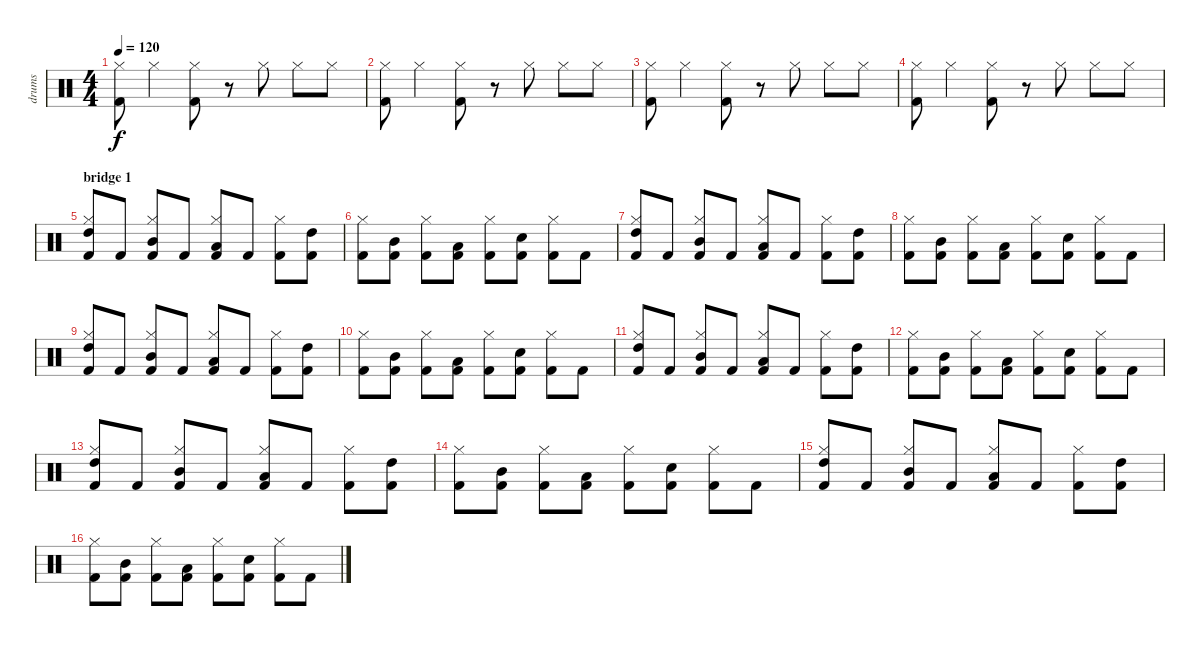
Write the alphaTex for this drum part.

\track ("drums" "drums") {instrument percussion}
\staff {score}
\articulation defaults
\ts (4 4)
\tempo 120
\clef neutral
\ks c
("Kick (hit) 2" "Hi-Hat (closed)").8{dy f} "Hi-Hat (closed)".4 ("Kick (hit) 2" "Hi-Hat (closed)").8 r.8 "Hi-Hat (closed)".8 "Hi-Hat (closed)".8 "Hi-Hat (closed)".8 |
("Kick (hit) 2" "Hi-Hat (closed)").8 "Hi-Hat (closed)".4 ("Kick (hit) 2" "Hi-Hat (closed)").8 r.8 "Hi-Hat (closed)".8 "Hi-Hat (closed)".8 "Hi-Hat (closed)".8 |
("Kick (hit) 2" "Hi-Hat (closed)").8 "Hi-Hat (closed)".4 ("Kick (hit) 2" "Hi-Hat (closed)").8 r.8 "Hi-Hat (closed)".8 "Hi-Hat (closed)".8 "Hi-Hat (closed)".8 |
("Kick (hit) 2" "Hi-Hat (closed)").8 "Hi-Hat (closed)".4 ("Kick (hit) 2" "Hi-Hat (closed)").8 r.8 "Hi-Hat (closed)".8 "Hi-Hat (closed)".8 "Hi-Hat (closed)".8 |
\section ("" "bridge 1")
("Kick (hit) 2" "High Tom (hit)" "Hi-Hat (closed)").8 "Kick (hit) 2".8 ("Kick (hit) 2" "Mid Tom (hit)" "Hi-Hat (closed)").8 "Kick (hit) 2".8 ("Kick (hit) 2" "Low Tom (hit)" "Hi-Hat (closed)").8 "Kick (hit) 2".8 ("Kick (hit) 2" "Hi-Hat (closed)").8 ("Kick (hit) 2" "High Tom (hit)").8 |
("Kick (hit) 2" "Hi-Hat (closed)").8 ("Kick (hit) 2" "Mid Tom (hit)").8 ("Kick (hit) 2" "Hi-Hat (closed)").8 ("Kick (hit) 2" "Low Tom (hit)").8 ("Kick (hit) 2" "Hi-Hat (closed)").8 ("Snare (hit) 2" "Kick (hit) 2").8 ("Kick (hit) 2" "Hi-Hat (closed)").8 "Kick (hit) 2".8 |
("Kick (hit) 2" "High Tom (hit)" "Hi-Hat (closed)").8 "Kick (hit) 2".8 ("Kick (hit) 2" "Mid Tom (hit)" "Hi-Hat (closed)").8 "Kick (hit) 2".8 ("Kick (hit) 2" "Low Tom (hit)" "Hi-Hat (closed)").8 "Kick (hit) 2".8 ("Kick (hit) 2" "Hi-Hat (closed)").8 ("Kick (hit) 2" "High Tom (hit)").8 |
("Kick (hit) 2" "Hi-Hat (closed)").8 ("Kick (hit) 2" "Mid Tom (hit)").8 ("Kick (hit) 2" "Hi-Hat (closed)").8 ("Kick (hit) 2" "Low Tom (hit)").8 ("Kick (hit) 2" "Hi-Hat (closed)").8 ("Snare (hit) 2" "Kick (hit) 2").8 ("Kick (hit) 2" "Hi-Hat (closed)").8 "Kick (hit) 2".8 |
("Kick (hit) 2" "High Tom (hit)" "Hi-Hat (closed)").8 "Kick (hit) 2".8 ("Kick (hit) 2" "Mid Tom (hit)" "Hi-Hat (closed)").8 "Kick (hit) 2".8 ("Kick (hit) 2" "Low Tom (hit)" "Hi-Hat (closed)").8 "Kick (hit) 2".8 ("Kick (hit) 2" "Hi-Hat (closed)").8 ("Kick (hit) 2" "High Tom (hit)").8 |
("Kick (hit) 2" "Hi-Hat (closed)").8 ("Kick (hit) 2" "Mid Tom (hit)").8 ("Kick (hit) 2" "Hi-Hat (closed)").8 ("Kick (hit) 2" "Low Tom (hit)").8 ("Kick (hit) 2" "Hi-Hat (closed)").8 ("Snare (hit) 2" "Kick (hit) 2").8 ("Kick (hit) 2" "Hi-Hat (closed)").8 "Kick (hit) 2".8 |
("Kick (hit) 2" "High Tom (hit)" "Hi-Hat (closed)").8 "Kick (hit) 2".8 ("Kick (hit) 2" "Mid Tom (hit)" "Hi-Hat (closed)").8 "Kick (hit) 2".8 ("Kick (hit) 2" "Low Tom (hit)" "Hi-Hat (closed)").8 "Kick (hit) 2".8 ("Kick (hit) 2" "Hi-Hat (closed)").8 ("Kick (hit) 2" "High Tom (hit)").8 |
("Kick (hit) 2" "Hi-Hat (closed)").8 ("Kick (hit) 2" "Mid Tom (hit)").8 ("Kick (hit) 2" "Hi-Hat (closed)").8 ("Kick (hit) 2" "Low Tom (hit)").8 ("Kick (hit) 2" "Hi-Hat (closed)").8 ("Snare (hit) 2" "Kick (hit) 2").8 ("Kick (hit) 2" "Hi-Hat (closed)").8 "Kick (hit) 2".8 |
("Kick (hit) 2" "High Tom (hit)" "Hi-Hat (closed)").8 "Kick (hit) 2".8 ("Kick (hit) 2" "Mid Tom (hit)" "Hi-Hat (closed)").8 "Kick (hit) 2".8 ("Kick (hit) 2" "Low Tom (hit)" "Hi-Hat (closed)").8 "Kick (hit) 2".8 ("Kick (hit) 2" "Hi-Hat (closed)").8 ("Kick (hit) 2" "High Tom (hit)").8 |
("Kick (hit) 2" "Hi-Hat (closed)").8 ("Kick (hit) 2" "Mid Tom (hit)").8 ("Kick (hit) 2" "Hi-Hat (closed)").8 ("Kick (hit) 2" "Low Tom (hit)").8 ("Kick (hit) 2" "Hi-Hat (closed)").8 ("Snare (hit) 2" "Kick (hit) 2").8 ("Kick (hit) 2" "Hi-Hat (closed)").8 "Kick (hit) 2".8 |
("Kick (hit) 2" "High Tom (hit)" "Hi-Hat (closed)").8 "Kick (hit) 2".8 ("Kick (hit) 2" "Mid Tom (hit)" "Hi-Hat (closed)").8 "Kick (hit) 2".8 ("Kick (hit) 2" "Low Tom (hit)" "Hi-Hat (closed)").8 "Kick (hit) 2".8 ("Kick (hit) 2" "Hi-Hat (closed)").8 ("Kick (hit) 2" "High Tom (hit)").8 |
("Kick (hit) 2" "Hi-Hat (closed)").8 ("Kick (hit) 2" "Mid Tom (hit)").8 ("Kick (hit) 2" "Hi-Hat (closed)").8 ("Kick (hit) 2" "Low Tom (hit)").8 ("Kick (hit) 2" "Hi-Hat (closed)").8 ("Snare (hit) 2" "Kick (hit) 2").8 ("Kick (hit) 2" "Hi-Hat (closed)").8 "Kick (hit) 2".8
